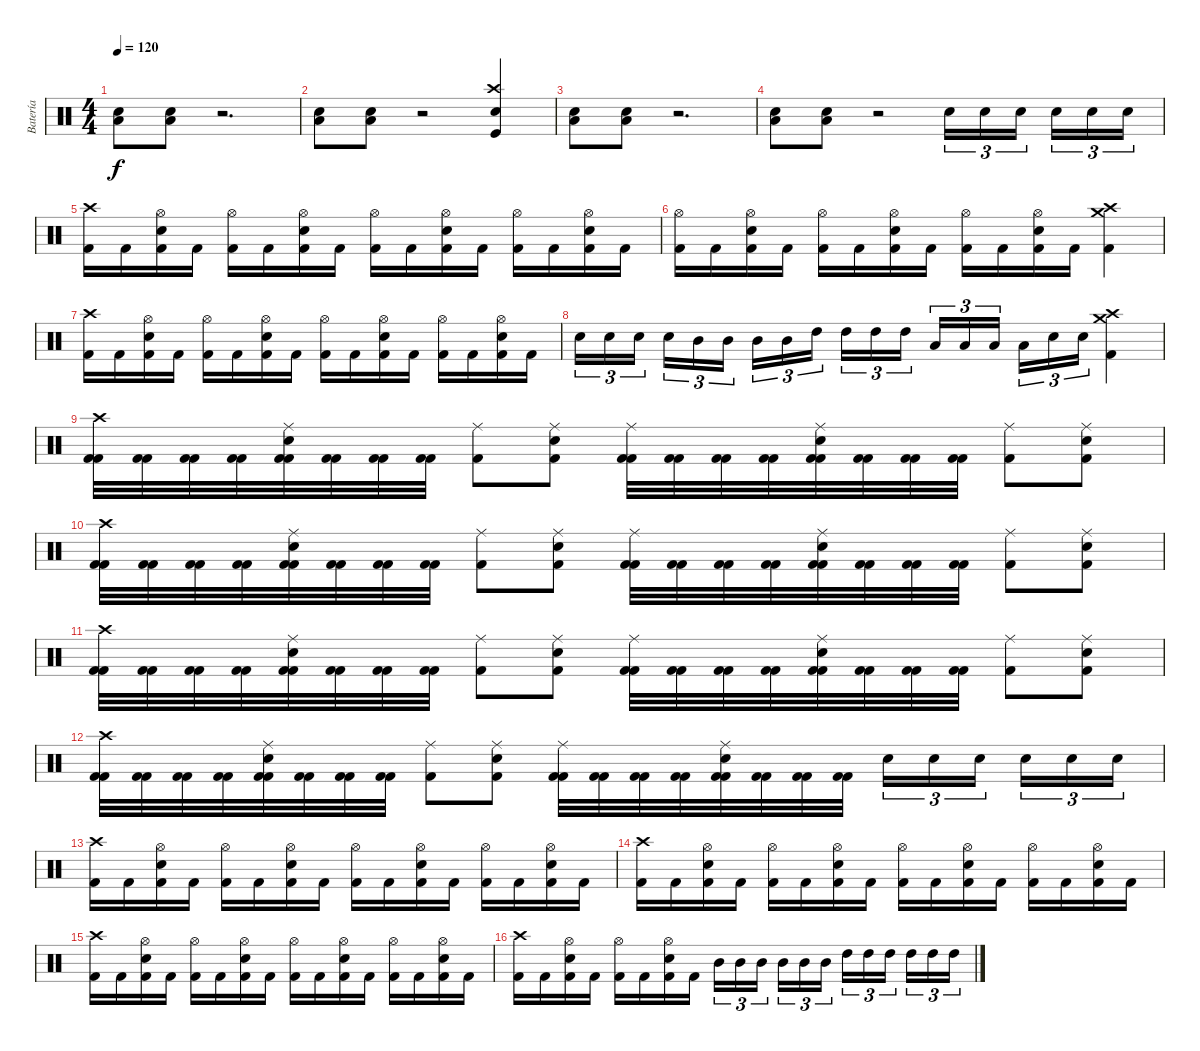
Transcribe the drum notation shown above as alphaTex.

\track ("Batería" "Batería") {instrument percussion}
\staff {score}
\articulation defaults
\ts (4 4)
\tempo 120
\clef neutral
\ks c
("Low Tom (hit)" "Snare (hit) 2").8{dy f} ("Low Tom (hit)" "Snare (hit) 2").8 r.2{d} |
("Low Tom (hit)" "Snare (hit) 2").8 ("Low Tom (hit)" "Snare (hit) 2").8 r.2 ("Crash high (hit)" "Kick (hit)" "Snare (hit) 2").4 |
("Low Tom (hit)" "Snare (hit) 2").8 ("Low Tom (hit)" "Snare (hit) 2").8 r.2{d} |
("Low Tom (hit)" "Snare (hit) 2").8 ("Low Tom (hit)" "Snare (hit) 2").8 r.2 "Snare (hit) 2".16{tu (3 2)} "Snare (hit) 2".16{tu (3 2)} "Snare (hit) 2".16{tu (3 2)} "Snare (hit) 2".16{tu (3 2)} "Snare (hit) 2".16{tu (3 2)} "Snare (hit) 2".16{tu (3 2)} |
("Kick (hit) 2" "Crash high (hit)").16 "Kick (hit) 2".16 ("Kick (hit) 2" "Hi-Hat (open)" "Snare (hit) 2").16 "Kick (hit) 2".16 ("Kick (hit) 2" "Hi-Hat (open)").16 "Kick (hit) 2".16 ("Kick (hit) 2" "Hi-Hat (open)" "Snare (hit) 2").16 "Kick (hit) 2".16 ("Kick (hit) 2" "Hi-Hat (open)").16 "Kick (hit) 2".16 ("Kick (hit) 2" "Hi-Hat (open)" "Snare (hit) 2").16 "Kick (hit) 2".16 ("Kick (hit) 2" "Hi-Hat (open)").16 "Kick (hit) 2".16 ("Kick (hit) 2" "Hi-Hat (open)" "Snare (hit) 2").16 "Kick (hit) 2".16 |
("Kick (hit) 2" "Hi-Hat (open)").16 "Kick (hit) 2".16 ("Kick (hit) 2" "Hi-Hat (open)" "Snare (hit) 2").16 "Kick (hit) 2".16 ("Kick (hit) 2" "Hi-Hat (open)").16 "Kick (hit) 2".16 ("Kick (hit) 2" "Hi-Hat (open)" "Snare (hit) 2").16 "Kick (hit) 2".16 ("Kick (hit) 2" "Hi-Hat (open)").16 "Kick (hit) 2".16 ("Kick (hit) 2" "Hi-Hat (open)" "Snare (hit) 2").16 "Kick (hit) 2".16 ("Crash high (hit)" "Crash medium (hit)" "Kick (hit) 2").4 |
("Kick (hit) 2" "Crash high (hit)").16 "Kick (hit) 2".16 ("Kick (hit) 2" "Hi-Hat (open)" "Snare (hit) 2").16 "Kick (hit) 2".16 ("Kick (hit) 2" "Hi-Hat (open)").16 "Kick (hit) 2".16 ("Kick (hit) 2" "Hi-Hat (open)" "Snare (hit) 2").16 "Kick (hit) 2".16 ("Kick (hit) 2" "Hi-Hat (open)").16 "Kick (hit) 2".16 ("Kick (hit) 2" "Hi-Hat (open)" "Snare (hit) 2").16 "Kick (hit) 2".16 ("Kick (hit) 2" "Hi-Hat (open)").16 "Kick (hit) 2".16 ("Kick (hit) 2" "Hi-Hat (open)" "Snare (hit) 2").16 "Kick (hit) 2".16 |
"Snare (hit) 2".16{tu (3 2)} "Snare (hit) 2".16{tu (3 2)} "Snare (hit) 2".16{tu (3 2)} "Snare (hit) 2".16{tu (3 2)} "Mid Tom (hit)".16{tu (3 2)} "Mid Tom (hit)".16{tu (3 2)} "Mid Tom (hit)".16{tu (3 2)} "Mid Tom (hit)".16{tu (3 2)} "High Tom (hit)".16{tu (3 2)} "High Tom (hit)".16{tu (3 2)} "High Tom (hit)".16{tu (3 2)} "High Tom (hit)".16{tu (3 2)} "Low Tom (hit)".16{tu (3 2)} "Low Tom (hit)".16{tu (3 2)} "Low Tom (hit)".16{tu (3 2)} "Low Tom (hit)".16{tu (3 2)} "Snare (hit) 2".16{tu (3 2)} "Snare (hit) 2".16{tu (3 2)} ("Crash high (hit)" "Kick (hit) 2" "Crash medium (hit)").4 |
("Kick (hit) 2" "Crash high (hit)" "Kick (hit) 2").32 ("Kick (hit) 2" "Kick (hit) 2").32 ("Kick (hit) 2" "Kick (hit) 2").32 ("Kick (hit) 2" "Kick (hit) 2").32 ("Kick (hit) 2" "Ride (middle)" "Snare (hit) 2" "Kick (hit) 2").32 ("Kick (hit) 2" "Kick (hit) 2").32 ("Kick (hit) 2" "Kick (hit) 2").32 ("Kick (hit) 2" "Kick (hit) 2").32 ("Kick (hit) 2" "Ride (middle)").8 ("Kick (hit) 2" "Ride (middle)" "Snare (hit) 2").8 ("Kick (hit) 2" "Ride (middle)" "Kick (hit) 2").32 ("Kick (hit) 2" "Kick (hit) 2").32 ("Kick (hit) 2" "Kick (hit) 2").32 ("Kick (hit) 2" "Kick (hit) 2").32 ("Kick (hit) 2" "Ride (middle)" "Snare (hit) 2" "Kick (hit) 2").32 ("Kick (hit) 2" "Kick (hit) 2").32 ("Kick (hit) 2" "Kick (hit) 2").32 ("Kick (hit) 2" "Kick (hit) 2").32 ("Kick (hit) 2" "Ride (middle)").8 ("Kick (hit) 2" "Ride (middle)" "Snare (hit) 2").8 |
("Kick (hit) 2" "Crash high (hit)" "Kick (hit) 2").32 ("Kick (hit) 2" "Kick (hit) 2").32 ("Kick (hit) 2" "Kick (hit) 2").32 ("Kick (hit) 2" "Kick (hit) 2").32 ("Kick (hit) 2" "Ride (middle)" "Snare (hit) 2" "Kick (hit) 2").32 ("Kick (hit) 2" "Kick (hit) 2").32 ("Kick (hit) 2" "Kick (hit) 2").32 ("Kick (hit) 2" "Kick (hit) 2").32 ("Kick (hit) 2" "Ride (middle)").8 ("Kick (hit) 2" "Ride (middle)" "Snare (hit) 2").8 ("Kick (hit) 2" "Ride (middle)" "Kick (hit) 2").32 ("Kick (hit) 2" "Kick (hit) 2").32 ("Kick (hit) 2" "Kick (hit) 2").32 ("Kick (hit) 2" "Kick (hit) 2").32 ("Kick (hit) 2" "Ride (middle)" "Snare (hit) 2" "Kick (hit) 2").32 ("Kick (hit) 2" "Kick (hit) 2").32 ("Kick (hit) 2" "Kick (hit) 2").32 ("Kick (hit) 2" "Kick (hit) 2").32 ("Kick (hit) 2" "Ride (middle)").8 ("Kick (hit) 2" "Ride (middle)" "Snare (hit) 2").8 |
("Kick (hit) 2" "Crash high (hit)" "Kick (hit) 2").32 ("Kick (hit) 2" "Kick (hit) 2").32 ("Kick (hit) 2" "Kick (hit) 2").32 ("Kick (hit) 2" "Kick (hit) 2").32 ("Kick (hit) 2" "Ride (middle)" "Snare (hit) 2" "Kick (hit) 2").32 ("Kick (hit) 2" "Kick (hit) 2").32 ("Kick (hit) 2" "Kick (hit) 2").32 ("Kick (hit) 2" "Kick (hit) 2").32 ("Kick (hit) 2" "Ride (middle)").8 ("Kick (hit) 2" "Ride (middle)" "Snare (hit) 2").8 ("Kick (hit) 2" "Ride (middle)" "Kick (hit) 2").32 ("Kick (hit) 2" "Kick (hit) 2").32 ("Kick (hit) 2" "Kick (hit) 2").32 ("Kick (hit) 2" "Kick (hit) 2").32 ("Kick (hit) 2" "Ride (middle)" "Snare (hit) 2" "Kick (hit) 2").32 ("Kick (hit) 2" "Kick (hit) 2").32 ("Kick (hit) 2" "Kick (hit) 2").32 ("Kick (hit) 2" "Kick (hit) 2").32 ("Kick (hit) 2" "Ride (middle)").8 ("Kick (hit) 2" "Ride (middle)" "Snare (hit) 2").8 |
("Kick (hit) 2" "Crash high (hit)" "Kick (hit) 2").32 ("Kick (hit) 2" "Kick (hit) 2").32 ("Kick (hit) 2" "Kick (hit) 2").32 ("Kick (hit) 2" "Kick (hit) 2").32 ("Kick (hit) 2" "Ride (middle)" "Snare (hit) 2" "Kick (hit) 2").32 ("Kick (hit) 2" "Kick (hit) 2").32 ("Kick (hit) 2" "Kick (hit) 2").32 ("Kick (hit) 2" "Kick (hit) 2").32 ("Kick (hit) 2" "Ride (middle)").8 ("Kick (hit) 2" "Ride (middle)" "Snare (hit) 2").8 ("Kick (hit) 2" "Ride (middle)" "Kick (hit) 2").32 ("Kick (hit) 2" "Kick (hit) 2").32 ("Kick (hit) 2" "Kick (hit) 2").32 ("Kick (hit) 2" "Kick (hit) 2").32 ("Kick (hit) 2" "Ride (middle)" "Snare (hit) 2" "Kick (hit) 2").32 ("Kick (hit) 2" "Kick (hit) 2").32 ("Kick (hit) 2" "Kick (hit) 2").32 ("Kick (hit) 2" "Kick (hit) 2").32 "Snare (hit) 2".16{tu (3 2)} "Snare (hit) 2".16{tu (3 2)} "Snare (hit) 2".16{tu (3 2)} "Snare (hit) 2".16{tu (3 2)} "Snare (hit) 2".16{tu (3 2)} "Snare (hit) 2".16{tu (3 2)} |
("Kick (hit) 2" "Crash high (hit)").16 "Kick (hit) 2".16 ("Kick (hit) 2" "Hi-Hat (open)" "Snare (hit) 2").16 "Kick (hit) 2".16 ("Kick (hit) 2" "Hi-Hat (open)").16 "Kick (hit) 2".16 ("Kick (hit) 2" "Hi-Hat (open)" "Snare (hit) 2").16 "Kick (hit) 2".16 ("Kick (hit) 2" "Hi-Hat (open)").16 "Kick (hit) 2".16 ("Kick (hit) 2" "Hi-Hat (open)" "Snare (hit) 2").16 "Kick (hit) 2".16 ("Kick (hit) 2" "Hi-Hat (open)").16 "Kick (hit) 2".16 ("Kick (hit) 2" "Hi-Hat (open)" "Snare (hit) 2").16 "Kick (hit) 2".16 |
("Kick (hit) 2" "Crash high (hit)").16 "Kick (hit) 2".16 ("Kick (hit) 2" "Hi-Hat (open)" "Snare (hit) 2").16 "Kick (hit) 2".16 ("Kick (hit) 2" "Hi-Hat (open)").16 "Kick (hit) 2".16 ("Kick (hit) 2" "Hi-Hat (open)" "Snare (hit) 2").16 "Kick (hit) 2".16 ("Kick (hit) 2" "Hi-Hat (open)").16 "Kick (hit) 2".16 ("Kick (hit) 2" "Hi-Hat (open)" "Snare (hit) 2").16 "Kick (hit) 2".16 ("Kick (hit) 2" "Hi-Hat (open)").16 "Kick (hit) 2".16 ("Kick (hit) 2" "Hi-Hat (open)" "Snare (hit) 2").16 "Kick (hit) 2".16 |
("Kick (hit) 2" "Crash high (hit)").16 "Kick (hit) 2".16 ("Kick (hit) 2" "Hi-Hat (open)" "Snare (hit) 2").16 "Kick (hit) 2".16 ("Kick (hit) 2" "Hi-Hat (open)").16 "Kick (hit) 2".16 ("Kick (hit) 2" "Hi-Hat (open)" "Snare (hit) 2").16 "Kick (hit) 2".16 ("Kick (hit) 2" "Hi-Hat (open)").16 "Kick (hit) 2".16 ("Kick (hit) 2" "Hi-Hat (open)" "Snare (hit) 2").16 "Kick (hit) 2".16 ("Kick (hit) 2" "Hi-Hat (open)").16 "Kick (hit) 2".16 ("Kick (hit) 2" "Hi-Hat (open)" "Snare (hit) 2").16 "Kick (hit) 2".16 |
("Kick (hit) 2" "Crash high (hit)").16 "Kick (hit) 2".16 ("Kick (hit) 2" "Hi-Hat (open)" "Snare (hit) 2").16 "Kick (hit) 2".16 ("Kick (hit) 2" "Hi-Hat (open)").16 "Kick (hit) 2".16 ("Kick (hit) 2" "Hi-Hat (open)" "Snare (hit) 2").16 "Kick (hit) 2".16 "Mid Tom (hit)".16{tu (3 2)} "Mid Tom (hit)".16{tu (3 2)} "Mid Tom (hit)".16{tu (3 2)} "Mid Tom (hit)".16{tu (3 2)} "Mid Tom (hit)".16{tu (3 2)} "Mid Tom (hit)".16{tu (3 2)} "High Tom (hit)".16{tu (3 2)} "High Tom (hit)".16{tu (3 2)} "High Tom (hit)".16{tu (3 2)} "High Tom (hit)".16{tu (3 2)} "High Tom (hit)".16{tu (3 2)} "High Tom (hit)".16{tu (3 2)}
